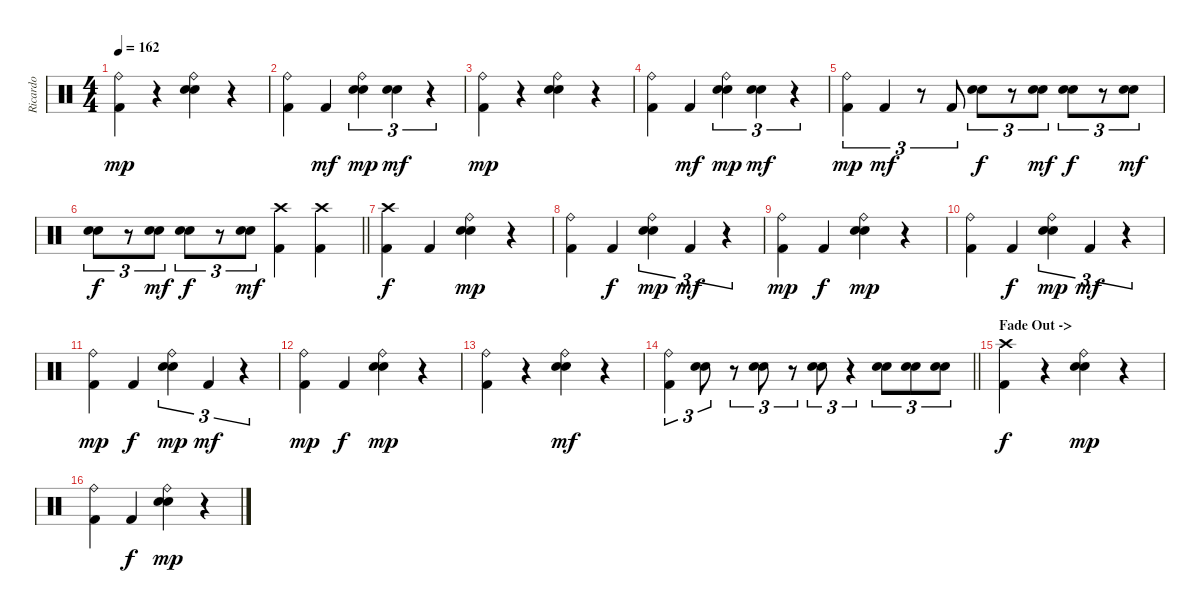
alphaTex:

\track ("Ricardo" "Ricardo") {instrument percussion}
\staff {score}
\articulation defaults
\ts (4 4)
\tempo 162
\clef neutral
\ks c
("Ride (bell)" "Kick (hit) 2").4{dy mp} r.4 ("Ride (bell)" "Electric Snare (hit)" "Snare (hit) 2").4 r.4 |
("Ride (bell)" "Kick (hit) 2").4 "Kick (hit) 2".4{dy mf} ("Ride (bell)" "Electric Snare (hit)" "Snare (hit) 2").4{tu (3 2) dy mp} ("Electric Snare (hit)" "Snare (hit) 2").4{tu (3 2) dy mf} r.4{tu (3 2)} |
("Ride (bell)" "Kick (hit) 2").4{dy mp} r.4 ("Ride (bell)" "Electric Snare (hit)" "Snare (hit) 2").4 r.4 |
("Ride (bell)" "Kick (hit) 2").4 "Kick (hit) 2".4{dy mf} ("Ride (bell)" "Electric Snare (hit)" "Snare (hit) 2").4{tu (3 2) dy mp} ("Electric Snare (hit)" "Snare (hit) 2").4{tu (3 2) dy mf} r.4{tu (3 2)} |
("Ride (bell)" "Kick (hit) 2").4{tu (3 2) dy mp} "Kick (hit) 2".4{tu (3 2) dy mf} r.8{tu (3 2)} "Kick (hit) 2".8{tu (3 2)} ("Electric Snare (hit)" "Snare (hit) 2").8{tu (3 2) dy f} r.8{tu (3 2)} ("Electric Snare (hit)" "Snare (hit) 2").8{tu (3 2) dy mf} ("Electric Snare (hit)" "Snare (hit) 2").8{tu (3 2) dy f} r.8{tu (3 2)} ("Electric Snare (hit)" "Snare (hit) 2").8{tu (3 2) dy mf} |
\barLineRight lightlight
("Electric Snare (hit)" "Snare (hit) 2").8{tu (3 2) dy f} r.8{tu (3 2)} ("Electric Snare (hit)" "Snare (hit) 2").8{tu (3 2) dy mf} ("Electric Snare (hit)" "Snare (hit) 2").8{tu (3 2) dy f} r.8{tu (3 2)} ("Electric Snare (hit)" "Snare (hit) 2").8{tu (3 2) dy mf} ("Crash high (hit)" "Kick (hit) 2").4 ("Crash high (hit)" "Kick (hit) 2").4 |
("Crash high (hit)" "Kick (hit) 2").4{dy f} "Kick (hit) 2".4 ("Ride (bell)" "Electric Snare (hit)" "Snare (hit) 2").4{dy mp} r.4 |
("Ride (bell)" "Kick (hit) 2").4 "Kick (hit) 2".4{dy f} ("Ride (bell)" "Electric Snare (hit)" "Snare (hit) 2").4{tu (3 2) dy mp} "Kick (hit) 2".4{tu (3 2) dy mf} r.4{tu (3 2)} |
("Ride (bell)" "Kick (hit) 2").4{dy mp} "Kick (hit) 2".4{dy f} ("Ride (bell)" "Electric Snare (hit)" "Snare (hit) 2").4{dy mp} r.4 |
("Ride (bell)" "Kick (hit) 2").4 "Kick (hit) 2".4{dy f} ("Ride (bell)" "Electric Snare (hit)" "Snare (hit) 2").4{tu (3 2) dy mp} "Kick (hit) 2".4{tu (3 2) dy mf} r.4{tu (3 2)} |
("Ride (bell)" "Kick (hit) 2").4{dy mp} "Kick (hit) 2".4{dy f} ("Ride (bell)" "Electric Snare (hit)" "Snare (hit) 2").4{tu (3 2) dy mp} "Kick (hit) 2".4{tu (3 2) dy mf} r.4{tu (3 2)} |
("Ride (bell)" "Kick (hit) 2").4{dy mp} "Kick (hit) 2".4{dy f} ("Ride (bell)" "Electric Snare (hit)" "Snare (hit) 2").4{dy mp} r.4 |
("Ride (bell)" "Kick (hit) 2").4 r.4 ("Ride (bell)" "Electric Snare (hit)" "Snare (hit) 2").4{dy mf} r.4 |
\barLineRight lightlight
("Ride (bell)" "Kick (hit) 2").4{tu (3 2)} ("Electric Snare (hit)" "Snare (hit) 2").8{tu (3 2)} r.8{tu (3 2)} ("Electric Snare (hit)" "Snare (hit) 2").8{tu (3 2)} r.8{tu (3 2)} ("Electric Snare (hit)" "Snare (hit) 2").8{tu (3 2)} r.4{tu (3 2)} ("Electric Snare (hit)" "Snare (hit) 2").8{tu (3 2)} ("Electric Snare (hit)" "Snare (hit) 2").8{tu (3 2)} ("Electric Snare (hit)" "Snare (hit) 2").8{tu (3 2)} |
\section ("" "Fade Out ->")
("Crash high (hit)" "Kick (hit) 2").4{dy f volume 8} r.4 ("Ride (bell)" "Electric Snare (hit)" "Snare (hit) 2").4{dy mp} r.4 |
("Ride (bell)" "Kick (hit) 2").4 "Kick (hit) 2".4{dy f} ("Ride (bell)" "Electric Snare (hit)" "Snare (hit) 2").4{dy mp} r.4
